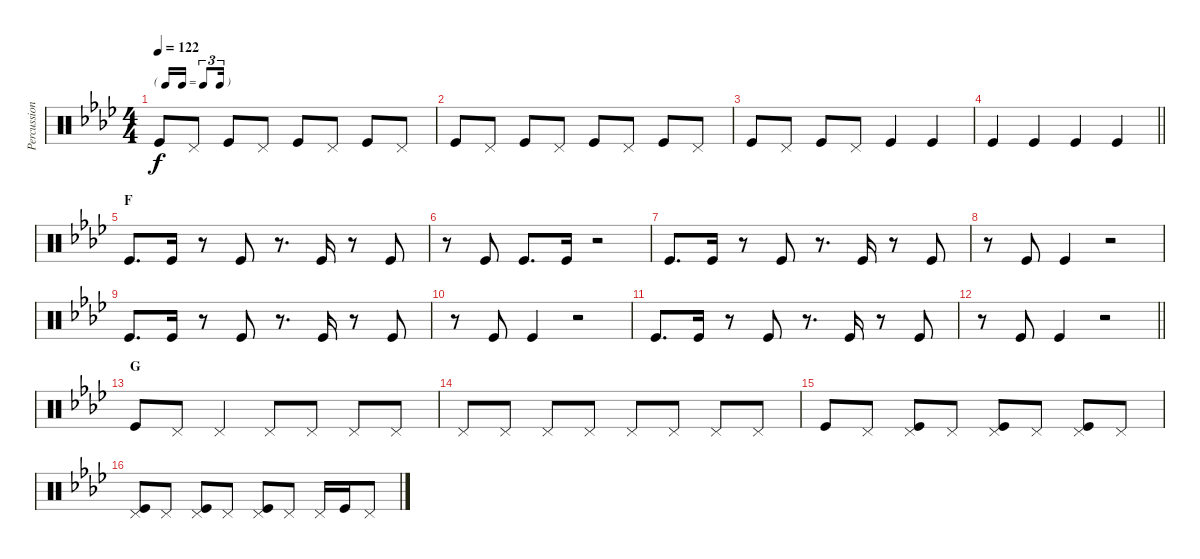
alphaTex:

\track ("Percussion Foot" "Percussion") {instrument percussion}
\staff {score}
\articulation defaults
\ts (4 4)
\tf triplet16th
\tempo 122
\clef neutral
\ks ab "Kick (hit)".8{dy f} "Pedal Hi-Hat (hit)".8 "Kick (hit)".8 "Pedal Hi-Hat (hit)".8 "Kick (hit)".8 "Pedal Hi-Hat (hit)".8 "Kick (hit)".8 "Pedal Hi-Hat (hit)".8
|
"Kick (hit)".8 "Pedal Hi-Hat (hit)".8 "Kick (hit)".8 "Pedal Hi-Hat (hit)".8 "Kick (hit)".8 "Pedal Hi-Hat (hit)".8 "Kick (hit)".8 "Pedal Hi-Hat (hit)".8 |
"Kick (hit)".8 "Pedal Hi-Hat (hit)".8 "Kick (hit)".8 "Pedal Hi-Hat (hit)".8 "Kick (hit)".4 "Kick (hit)".4 |
\barLineRight lightlight "Kick (hit)".4 "Kick (hit)".4 "Kick (hit)".4 "Kick (hit)".4
|
\section ("" "F")
"Kick (hit)".8{d} "Kick (hit)".16 r.8 "Kick (hit)".8 r.8{d} "Kick (hit)".16 r.8 "Kick (hit)".8 |
r.8 "Kick (hit)".8 "Kick (hit)".8{d} "Kick (hit)".16 r.2 |
"Kick (hit)".8{d} "Kick (hit)".16 r.8 "Kick (hit)".8 r.8{d} "Kick (hit)".16 r.8 "Kick (hit)".8 |
r.8 "Kick (hit)".8 "Kick (hit)".4 r.2 |
"Kick (hit)".8{d} "Kick (hit)".16 r.8 "Kick (hit)".8 r.8{d} "Kick (hit)".16 r.8 "Kick (hit)".8 |
r.8 "Kick (hit)".8 "Kick (hit)".4 r.2 |
"Kick (hit)".8{d} "Kick (hit)".16 r.8 "Kick (hit)".8 r.8{d} "Kick (hit)".16 r.8 "Kick (hit)".8 |
\barLineRight lightlight
r.8 "Kick (hit)".8 "Kick (hit)".4 r.2 |
\section ("" "G")
"Kick (hit)".8 "Pedal Hi-Hat (hit)".8 "Pedal Hi-Hat (hit)".4 "Pedal Hi-Hat (hit)".8 "Pedal Hi-Hat (hit)".8 "Pedal Hi-Hat (hit)".8 "Pedal Hi-Hat (hit)".8 |
"Pedal Hi-Hat (hit)".8 "Pedal Hi-Hat (hit)".8 "Pedal Hi-Hat (hit)".8 "Pedal Hi-Hat (hit)".8 "Pedal Hi-Hat (hit)".8 "Pedal Hi-Hat (hit)".8 "Pedal Hi-Hat (hit)".8 "Pedal Hi-Hat (hit)".8 |
"Kick (hit)".8 "Pedal Hi-Hat (hit)".8 ("Kick (hit)" "Pedal Hi-Hat (hit)").8 "Pedal Hi-Hat (hit)".8 ("Kick (hit)" "Pedal Hi-Hat (hit)").8 "Pedal Hi-Hat (hit)".8 ("Kick (hit)" "Pedal Hi-Hat (hit)").8 "Pedal Hi-Hat (hit)".8 |
("Kick (hit)" "Pedal Hi-Hat (hit)").8 "Pedal Hi-Hat (hit)".8 ("Kick (hit)" "Pedal Hi-Hat (hit)").8 "Pedal Hi-Hat (hit)".8 ("Kick (hit)" "Pedal Hi-Hat (hit)").8 "Pedal Hi-Hat (hit)".8 "Pedal Hi-Hat (hit)".16 "Kick (hit)".16 "Pedal Hi-Hat (hit)".8
